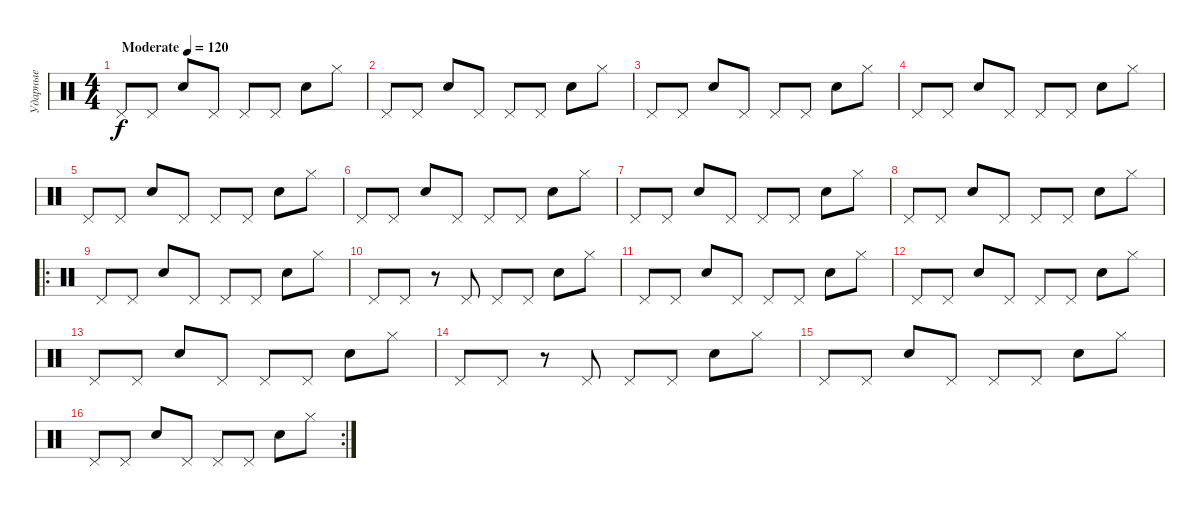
\track ("Ударные" "Ударные") {instrument percussion}
\staff {score}
\articulation defaults
\ts (4 4)
\tempo (120 "Moderate")
\clef neutral
\ks c "Pedal Hi-Hat (hit)".8{dy f} "Pedal Hi-Hat (hit)".8 "Snare (hit) 2".8 "Pedal Hi-Hat (hit)".8 "Pedal Hi-Hat (hit)".8 "Pedal Hi-Hat (hit)".8 "Snare (hit) 2".8 "Hi-Hat (closed)".8
|
"Pedal Hi-Hat (hit)".8 "Pedal Hi-Hat (hit)".8 "Snare (hit) 2".8 "Pedal Hi-Hat (hit)".8 "Pedal Hi-Hat (hit)".8 "Pedal Hi-Hat (hit)".8 "Snare (hit) 2".8 "Hi-Hat (closed)".8 |
"Pedal Hi-Hat (hit)".8 "Pedal Hi-Hat (hit)".8 "Snare (hit) 2".8 "Pedal Hi-Hat (hit)".8 "Pedal Hi-Hat (hit)".8 "Pedal Hi-Hat (hit)".8 "Snare (hit) 2".8 "Hi-Hat (closed)".8 |
"Pedal Hi-Hat (hit)".8 "Pedal Hi-Hat (hit)".8 "Snare (hit) 2".8 "Pedal Hi-Hat (hit)".8 "Pedal Hi-Hat (hit)".8 "Pedal Hi-Hat (hit)".8 "Snare (hit) 2".8 "Hi-Hat (closed)".8 |
"Pedal Hi-Hat (hit)".8 "Pedal Hi-Hat (hit)".8 "Snare (hit) 2".8 "Pedal Hi-Hat (hit)".8 "Pedal Hi-Hat (hit)".8 "Pedal Hi-Hat (hit)".8 "Snare (hit) 2".8 "Hi-Hat (closed)".8 |
"Pedal Hi-Hat (hit)".8 "Pedal Hi-Hat (hit)".8 "Snare (hit) 2".8 "Pedal Hi-Hat (hit)".8 "Pedal Hi-Hat (hit)".8 "Pedal Hi-Hat (hit)".8 "Snare (hit) 2".8 "Hi-Hat (closed)".8 |
"Pedal Hi-Hat (hit)".8 "Pedal Hi-Hat (hit)".8 "Snare (hit) 2".8 "Pedal Hi-Hat (hit)".8 "Pedal Hi-Hat (hit)".8 "Pedal Hi-Hat (hit)".8 "Snare (hit) 2".8 "Hi-Hat (closed)".8 |
"Pedal Hi-Hat (hit)".8 "Pedal Hi-Hat (hit)".8 "Snare (hit) 2".8 "Pedal Hi-Hat (hit)".8 "Pedal Hi-Hat (hit)".8 "Pedal Hi-Hat (hit)".8 "Snare (hit) 2".8 "Hi-Hat (closed)".8 |
\ro "Pedal Hi-Hat (hit)".8 "Pedal Hi-Hat (hit)".8 "Snare (hit) 2".8 "Pedal Hi-Hat (hit)".8 "Pedal Hi-Hat (hit)".8 "Pedal Hi-Hat (hit)".8 "Snare (hit) 2".8 "Hi-Hat (closed)".8
|
"Pedal Hi-Hat (hit)".8 "Pedal Hi-Hat (hit)".8 r.8 "Pedal Hi-Hat (hit)".8 "Pedal Hi-Hat (hit)".8 "Pedal Hi-Hat (hit)".8 "Snare (hit) 2".8 "Hi-Hat (closed)".8 |
"Pedal Hi-Hat (hit)".8 "Pedal Hi-Hat (hit)".8 "Snare (hit) 2".8 "Pedal Hi-Hat (hit)".8 "Pedal Hi-Hat (hit)".8 "Pedal Hi-Hat (hit)".8 "Snare (hit) 2".8 "Hi-Hat (closed)".8 |
"Pedal Hi-Hat (hit)".8 "Pedal Hi-Hat (hit)".8 "Snare (hit) 2".8 "Pedal Hi-Hat (hit)".8 "Pedal Hi-Hat (hit)".8 "Pedal Hi-Hat (hit)".8 "Snare (hit) 2".8 "Hi-Hat (closed)".8 |
"Pedal Hi-Hat (hit)".8 "Pedal Hi-Hat (hit)".8 "Snare (hit) 2".8 "Pedal Hi-Hat (hit)".8 "Pedal Hi-Hat (hit)".8 "Pedal Hi-Hat (hit)".8 "Snare (hit) 2".8 "Hi-Hat (closed)".8 |
"Pedal Hi-Hat (hit)".8 "Pedal Hi-Hat (hit)".8 r.8 "Pedal Hi-Hat (hit)".8 "Pedal Hi-Hat (hit)".8 "Pedal Hi-Hat (hit)".8 "Snare (hit) 2".8 "Hi-Hat (closed)".8 |
"Pedal Hi-Hat (hit)".8 "Pedal Hi-Hat (hit)".8 "Snare (hit) 2".8 "Pedal Hi-Hat (hit)".8 "Pedal Hi-Hat (hit)".8 "Pedal Hi-Hat (hit)".8 "Snare (hit) 2".8 "Hi-Hat (closed)".8 |
\rc 2 "Pedal Hi-Hat (hit)".8 "Pedal Hi-Hat (hit)".8 "Snare (hit) 2".8 "Pedal Hi-Hat (hit)".8 "Pedal Hi-Hat (hit)".8 "Pedal Hi-Hat (hit)".8 "Snare (hit) 2".8 "Hi-Hat (closed)".8
